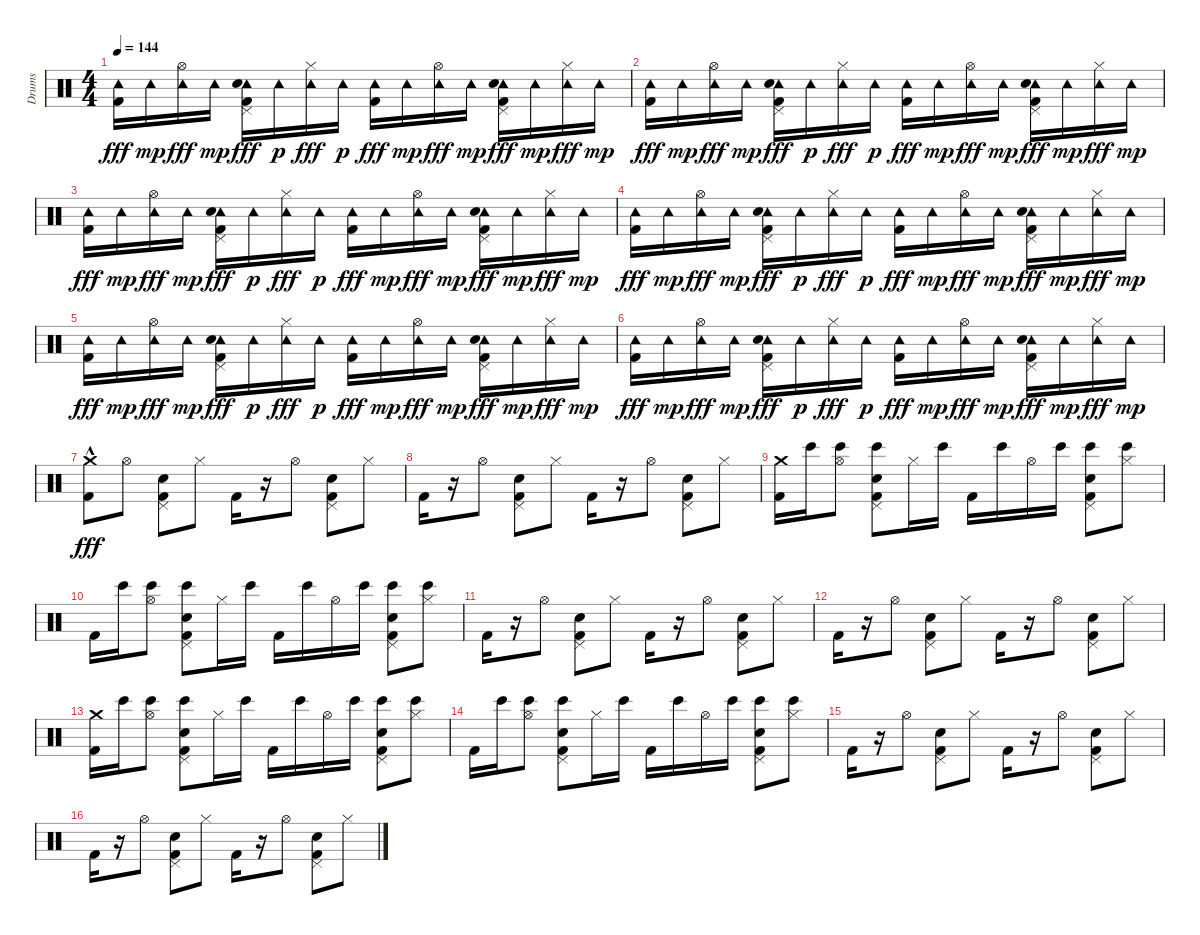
\track ("Drums" "Drums") {instrument percussion}
\staff {score}
\articulation defaults
\ts (4 4)
\tempo 144
\clef neutral
\ks c
("Tambourine (hit)" "Kick (hit) 2").16{dy fff} "Tambourine (hit)".16{dy mp} ("Tambourine (hit)" "Hi-Hat (open)").16{dy fff} "Tambourine (hit)".16{dy mp} ("Tambourine (hit)" "Pedal Hi-Hat (hit)" "Kick (hit) 2" "Hand Clap (hit)").16{dy fff} "Tambourine (hit)".16{dy p} ("Tambourine (hit)" "Hi-Hat (closed)").16{dy fff} "Tambourine (hit)".16{dy p} ("Tambourine (hit)" "Kick (hit) 2").16{dy fff} "Tambourine (hit)".16{dy mp} ("Tambourine (hit)" "Hi-Hat (open)").16{dy fff} "Tambourine (hit)".16{dy mp} ("Tambourine (hit)" "Pedal Hi-Hat (hit)" "Kick (hit) 2" "Hand Clap (hit)").16{dy fff} "Tambourine (hit)".16{dy mp} ("Tambourine (hit)" "Hi-Hat (closed)").16{dy fff} "Tambourine (hit)".16{dy mp} |
("Tambourine (hit)" "Kick (hit) 2").16{dy fff} "Tambourine (hit)".16{dy mp} ("Tambourine (hit)" "Hi-Hat (open)").16{dy fff} "Tambourine (hit)".16{dy mp} ("Tambourine (hit)" "Pedal Hi-Hat (hit)" "Kick (hit) 2" "Hand Clap (hit)").16{dy fff} "Tambourine (hit)".16{dy p} ("Tambourine (hit)" "Hi-Hat (closed)").16{dy fff} "Tambourine (hit)".16{dy p} ("Tambourine (hit)" "Kick (hit) 2").16{dy fff} "Tambourine (hit)".16{dy mp} ("Tambourine (hit)" "Hi-Hat (open)").16{dy fff} "Tambourine (hit)".16{dy mp} ("Tambourine (hit)" "Pedal Hi-Hat (hit)" "Kick (hit) 2" "Hand Clap (hit)").16{dy fff} "Tambourine (hit)".16{dy mp} ("Tambourine (hit)" "Hi-Hat (closed)").16{dy fff} "Tambourine (hit)".16{dy mp} |
("Tambourine (hit)" "Kick (hit) 2").16{dy fff} "Tambourine (hit)".16{dy mp} ("Tambourine (hit)" "Hi-Hat (open)").16{dy fff} "Tambourine (hit)".16{dy mp} ("Tambourine (hit)" "Pedal Hi-Hat (hit)" "Kick (hit) 2" "Hand Clap (hit)").16{dy fff} "Tambourine (hit)".16{dy p} ("Tambourine (hit)" "Hi-Hat (closed)").16{dy fff} "Tambourine (hit)".16{dy p} ("Tambourine (hit)" "Kick (hit) 2").16{dy fff} "Tambourine (hit)".16{dy mp} ("Tambourine (hit)" "Hi-Hat (open)").16{dy fff} "Tambourine (hit)".16{dy mp} ("Tambourine (hit)" "Pedal Hi-Hat (hit)" "Kick (hit) 2" "Hand Clap (hit)").16{dy fff} "Tambourine (hit)".16{dy mp} ("Tambourine (hit)" "Hi-Hat (closed)").16{dy fff} "Tambourine (hit)".16{dy mp} |
("Tambourine (hit)" "Kick (hit) 2").16{dy fff} "Tambourine (hit)".16{dy mp} ("Tambourine (hit)" "Hi-Hat (open)").16{dy fff} "Tambourine (hit)".16{dy mp} ("Tambourine (hit)" "Pedal Hi-Hat (hit)" "Kick (hit) 2" "Hand Clap (hit)").16{dy fff} "Tambourine (hit)".16{dy p} ("Tambourine (hit)" "Hi-Hat (closed)").16{dy fff} "Tambourine (hit)".16{dy p} ("Tambourine (hit)" "Kick (hit) 2").16{dy fff} "Tambourine (hit)".16{dy mp} ("Tambourine (hit)" "Hi-Hat (open)").16{dy fff} "Tambourine (hit)".16{dy mp} ("Tambourine (hit)" "Pedal Hi-Hat (hit)" "Kick (hit) 2" "Hand Clap (hit)").16{dy fff} "Tambourine (hit)".16{dy mp} ("Tambourine (hit)" "Hi-Hat (closed)").16{dy fff} "Tambourine (hit)".16{dy mp} |
("Tambourine (hit)" "Kick (hit) 2").16{dy fff} "Tambourine (hit)".16{dy mp} ("Tambourine (hit)" "Hi-Hat (open)").16{dy fff} "Tambourine (hit)".16{dy mp} ("Tambourine (hit)" "Pedal Hi-Hat (hit)" "Kick (hit) 2" "Hand Clap (hit)").16{dy fff} "Tambourine (hit)".16{dy p} ("Tambourine (hit)" "Hi-Hat (closed)").16{dy fff} "Tambourine (hit)".16{dy p} ("Tambourine (hit)" "Kick (hit) 2").16{dy fff} "Tambourine (hit)".16{dy mp} ("Tambourine (hit)" "Hi-Hat (open)").16{dy fff} "Tambourine (hit)".16{dy mp} ("Tambourine (hit)" "Pedal Hi-Hat (hit)" "Kick (hit) 2" "Hand Clap (hit)").16{dy fff} "Tambourine (hit)".16{dy mp} ("Tambourine (hit)" "Hi-Hat (closed)").16{dy fff} "Tambourine (hit)".16{dy mp} |
("Tambourine (hit)" "Kick (hit) 2").16{dy fff} "Tambourine (hit)".16{dy mp} ("Tambourine (hit)" "Hi-Hat (open)").16{dy fff} "Tambourine (hit)".16{dy mp} ("Tambourine (hit)" "Pedal Hi-Hat (hit)" "Kick (hit) 2" "Hand Clap (hit)").16{dy fff} "Tambourine (hit)".16{dy p} ("Tambourine (hit)" "Hi-Hat (closed)").16{dy fff} "Tambourine (hit)".16{dy p} ("Tambourine (hit)" "Kick (hit) 2").16{dy fff} "Tambourine (hit)".16{dy mp} ("Tambourine (hit)" "Hi-Hat (open)").16{dy fff} "Tambourine (hit)".16{dy mp} ("Tambourine (hit)" "Pedal Hi-Hat (hit)" "Kick (hit) 2" "Hand Clap (hit)").16{dy fff} "Tambourine (hit)".16{dy mp} ("Tambourine (hit)" "Hi-Hat (closed)").16{dy fff} "Tambourine (hit)".16{dy mp} |
("Crash medium (hit)"{hac} "Kick (hit) 2").8{dy fff} "Hi-Hat (open)".8 ("Pedal Hi-Hat (hit)" "Kick (hit) 2" "Hand Clap (hit)").8 "Hi-Hat (closed)".8 "Kick (hit) 2".16 r.16 "Hi-Hat (open)".8 ("Pedal Hi-Hat (hit)" "Kick (hit) 2" "Hand Clap (hit)").8 "Hi-Hat (closed)".8 |
"Kick (hit) 2".16 r.16 "Hi-Hat (open)".8 ("Pedal Hi-Hat (hit)" "Kick (hit) 2" "Hand Clap (hit)").8 "Hi-Hat (closed)".8 "Kick (hit) 2".16 r.16 "Hi-Hat (open)".8 ("Pedal Hi-Hat (hit)" "Kick (hit) 2" "Hand Clap (hit)").8 "Hi-Hat (closed)".8 |
("Crash medium (hit)" "Kick (hit) 2").16 "Bongo High (hit)".16 ("Bongo High (hit)" "Hi-Hat (open)").8 ("Bongo High (hit)" "Pedal Hi-Hat (hit)" "Kick (hit) 2" "Hand Clap (hit)").8 "Hi-Hat (closed)".16 "Bongo High (hit)".16 "Kick (hit) 2".16 "Bongo High (hit)".16 "Hi-Hat (open)".16 "Bongo High (hit)".16 ("Bongo High (hit)" "Pedal Hi-Hat (hit)" "Kick (hit) 2" "Hand Clap (hit)").8 ("Bongo High (hit)" "Hi-Hat (closed)").8 |
"Kick (hit) 2".16 "Bongo High (hit)".16 ("Bongo High (hit)" "Hi-Hat (open)").8 ("Bongo High (hit)" "Pedal Hi-Hat (hit)" "Kick (hit) 2" "Hand Clap (hit)").8 "Hi-Hat (closed)".16 "Bongo High (hit)".16 "Kick (hit) 2".16 "Bongo High (hit)".16 "Hi-Hat (open)".16 "Bongo High (hit)".16 ("Bongo High (hit)" "Pedal Hi-Hat (hit)" "Kick (hit) 2" "Hand Clap (hit)").8 ("Bongo High (hit)" "Hi-Hat (closed)").8 |
"Kick (hit) 2".16 r.16 "Hi-Hat (open)".8 ("Pedal Hi-Hat (hit)" "Kick (hit) 2" "Hand Clap (hit)").8 "Hi-Hat (closed)".8 "Kick (hit) 2".16 r.16 "Hi-Hat (open)".8 ("Pedal Hi-Hat (hit)" "Kick (hit) 2" "Hand Clap (hit)").8 "Hi-Hat (closed)".8 |
"Kick (hit) 2".16 r.16 "Hi-Hat (open)".8 ("Pedal Hi-Hat (hit)" "Kick (hit) 2" "Hand Clap (hit)").8 "Hi-Hat (closed)".8 "Kick (hit) 2".16 r.16 "Hi-Hat (open)".8 ("Pedal Hi-Hat (hit)" "Kick (hit) 2" "Hand Clap (hit)").8 "Hi-Hat (closed)".8 |
("Crash medium (hit)" "Kick (hit) 2").16 "Bongo High (hit)".16 ("Bongo High (hit)" "Hi-Hat (open)").8 ("Bongo High (hit)" "Pedal Hi-Hat (hit)" "Kick (hit) 2" "Hand Clap (hit)").8 "Hi-Hat (closed)".16 "Bongo High (hit)".16 "Kick (hit) 2".16 "Bongo High (hit)".16 "Hi-Hat (open)".16 "Bongo High (hit)".16 ("Bongo High (hit)" "Pedal Hi-Hat (hit)" "Kick (hit) 2" "Hand Clap (hit)").8 ("Bongo High (hit)" "Hi-Hat (closed)").8 |
"Kick (hit) 2".16 "Bongo High (hit)".16 ("Bongo High (hit)" "Hi-Hat (open)").8 ("Bongo High (hit)" "Pedal Hi-Hat (hit)" "Kick (hit) 2" "Hand Clap (hit)").8 "Hi-Hat (closed)".16 "Bongo High (hit)".16 "Kick (hit) 2".16 "Bongo High (hit)".16 "Hi-Hat (open)".16 "Bongo High (hit)".16 ("Bongo High (hit)" "Pedal Hi-Hat (hit)" "Kick (hit) 2" "Hand Clap (hit)").8 ("Bongo High (hit)" "Hi-Hat (closed)").8 |
"Kick (hit) 2".16 r.16 "Hi-Hat (open)".8 ("Pedal Hi-Hat (hit)" "Kick (hit) 2" "Hand Clap (hit)").8 "Hi-Hat (closed)".8 "Kick (hit) 2".16 r.16 "Hi-Hat (open)".8 ("Pedal Hi-Hat (hit)" "Kick (hit) 2" "Hand Clap (hit)").8 "Hi-Hat (closed)".8 |
"Kick (hit) 2".16 r.16 "Hi-Hat (open)".8 ("Pedal Hi-Hat (hit)" "Kick (hit) 2" "Hand Clap (hit)").8 "Hi-Hat (closed)".8 "Kick (hit) 2".16 r.16 "Hi-Hat (open)".8 ("Pedal Hi-Hat (hit)" "Kick (hit) 2" "Hand Clap (hit)").8 "Hi-Hat (closed)".8
